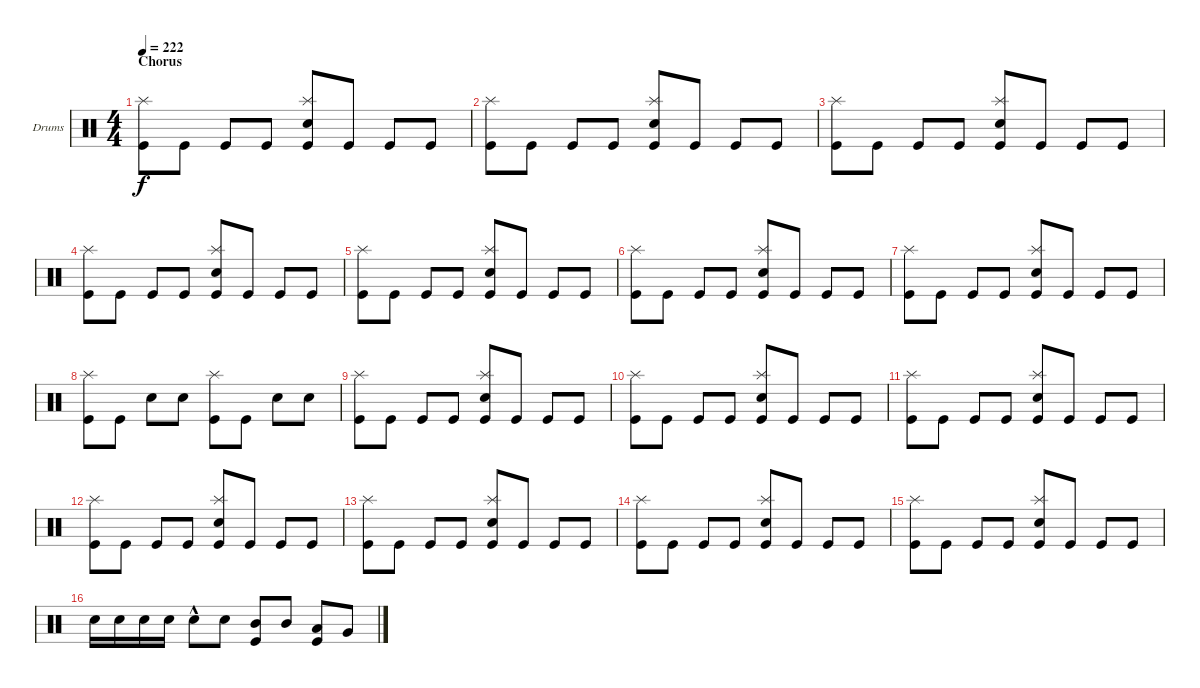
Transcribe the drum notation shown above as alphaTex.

\defaultSystemsLayout 4
\bracketExtendMode groupsimilarinstruments
\firstSystemTrackNameOrientation horizontal
\otherSystemsTrackNameOrientation horizontal
\track ("Drumkit" "Drums") {mute instrument percussion}
\staff {score}
\articulation defaults
\ts (4 4)
\section ("" "Chorus")
\tempo 222
\clef neutral
\ks c
("Kick (hit)" "Splash (hit)").8{dy f} "Kick (hit)".8 "Kick (hit)".8 "Kick (hit)".8 ("Kick (hit)" "Splash (hit)" "Snare (hit) 2").8 "Kick (hit)".8 "Kick (hit)".8 "Kick (hit)".8 |
("Kick (hit)" "Splash (hit)").8 "Kick (hit)".8 "Kick (hit)".8 "Kick (hit)".8 ("Kick (hit)" "Splash (hit)" "Snare (hit) 2").8 "Kick (hit)".8 "Kick (hit)".8 "Kick (hit)".8 |
("Kick (hit)" "Splash (hit)").8 "Kick (hit)".8 "Kick (hit)".8 "Kick (hit)".8 ("Kick (hit)" "Splash (hit)" "Snare (hit) 2").8 "Kick (hit)".8 "Kick (hit)".8 "Kick (hit)".8 |
("Kick (hit)" "Splash (hit)").8 "Kick (hit)".8 "Kick (hit)".8 "Kick (hit)".8 ("Kick (hit)" "Splash (hit)" "Snare (hit) 2").8 "Kick (hit)".8 "Kick (hit)".8 "Kick (hit)".8 |
("Kick (hit)" "Splash (hit)").8 "Kick (hit)".8 "Kick (hit)".8 "Kick (hit)".8 ("Kick (hit)" "Splash (hit)" "Snare (hit) 2").8 "Kick (hit)".8 "Kick (hit)".8 "Kick (hit)".8 |
("Kick (hit)" "Splash (hit)").8 "Kick (hit)".8 "Kick (hit)".8 "Kick (hit)".8 ("Kick (hit)" "Splash (hit)" "Snare (hit) 2").8 "Kick (hit)".8 "Kick (hit)".8 "Kick (hit)".8 |
("Kick (hit)" "Splash (hit)").8 "Kick (hit)".8 "Kick (hit)".8 "Kick (hit)".8 ("Kick (hit)" "Splash (hit)" "Snare (hit) 2").8 "Kick (hit)".8 "Kick (hit)".8 "Kick (hit)".8 |
("Kick (hit)" "Splash (hit)").8 "Kick (hit)".8 "Snare (hit) 2".8 "Snare (hit) 2".8 ("Kick (hit)" "Splash (hit)").8 "Kick (hit)".8 "Snare (hit) 2".8 "Snare (hit) 2".8 |
("Kick (hit)" "Splash (hit)").8 "Kick (hit)".8 "Kick (hit)".8 "Kick (hit)".8 ("Kick (hit)" "Splash (hit)" "Snare (hit) 2").8 "Kick (hit)".8 "Kick (hit)".8 "Kick (hit)".8 |
("Kick (hit)" "Splash (hit)").8 "Kick (hit)".8 "Kick (hit)".8 "Kick (hit)".8 ("Kick (hit)" "Splash (hit)" "Snare (hit) 2").8 "Kick (hit)".8 "Kick (hit)".8 "Kick (hit)".8 |
("Kick (hit)" "Splash (hit)").8 "Kick (hit)".8 "Kick (hit)".8 "Kick (hit)".8 ("Kick (hit)" "Splash (hit)" "Snare (hit) 2").8 "Kick (hit)".8 "Kick (hit)".8 "Kick (hit)".8 |
("Kick (hit)" "Splash (hit)").8 "Kick (hit)".8 "Kick (hit)".8 "Kick (hit)".8 ("Kick (hit)" "Splash (hit)" "Snare (hit) 2").8 "Kick (hit)".8 "Kick (hit)".8 "Kick (hit)".8 |
("Kick (hit)" "Splash (hit)").8 "Kick (hit)".8 "Kick (hit)".8 "Kick (hit)".8 ("Kick (hit)" "Splash (hit)" "Snare (hit) 2").8 "Kick (hit)".8 "Kick (hit)".8 "Kick (hit)".8 |
("Kick (hit)" "Splash (hit)").8 "Kick (hit)".8 "Kick (hit)".8 "Kick (hit)".8 ("Kick (hit)" "Splash (hit)" "Snare (hit) 2").8 "Kick (hit)".8 "Kick (hit)".8 "Kick (hit)".8 |
("Kick (hit)" "Splash (hit)").8 "Kick (hit)".8 "Kick (hit)".8 "Kick (hit)".8 ("Kick (hit)" "Splash (hit)" "Snare (hit) 2").8 "Kick (hit)".8 "Kick (hit)".8 "Kick (hit)".8 |
"Snare (hit) 2".16 "Snare (hit) 2".16 "Snare (hit) 2".16 "Snare (hit) 2".16 "Snare (hit) 2"{hac}.8 "Snare (hit) 2".8 ("Mid Tom (hit)" "Kick (hit)").8 "Mid Tom (hit)".8 ("Low Tom (hit)" "Kick (hit)").8 "Very Low Tom (hit)".8
